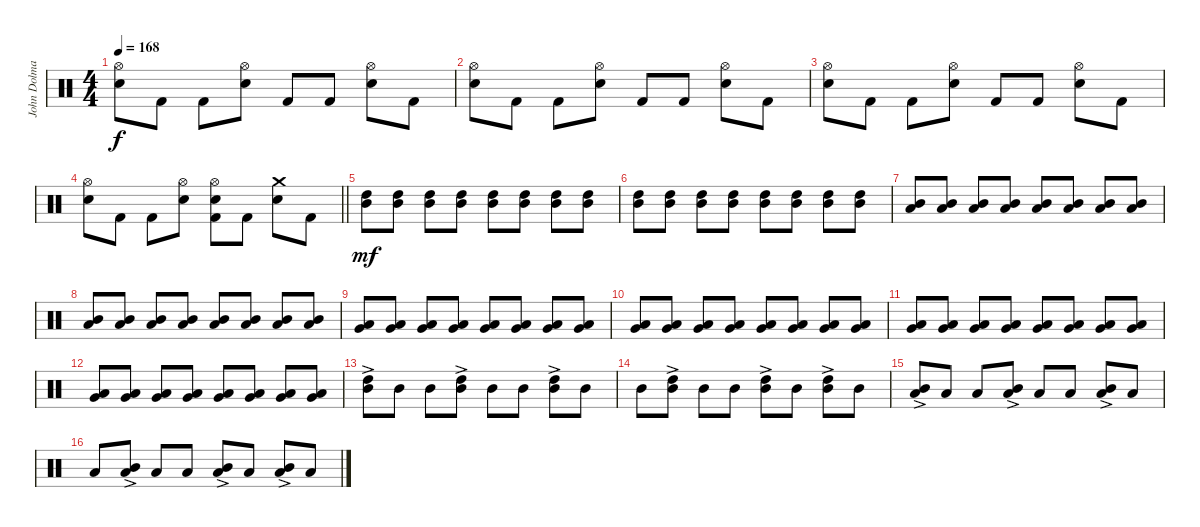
\track ("John Dolmayan" "John Dolma") {instrument percussion}
\staff {score}
\articulation defaults
\ts (4 4)
\tempo 168
\clef neutral
\ks c
("Hi-Hat (open)" "Electric Snare (hit)").8{dy f} "Kick (hit) 2".8 "Kick (hit) 2".8 ("Hi-Hat (open)" "Electric Snare (hit)").8 "Kick (hit) 2".8 "Kick (hit) 2".8 ("Hi-Hat (open)" "Electric Snare (hit)").8 "Kick (hit) 2".8 |
("Hi-Hat (open)" "Electric Snare (hit)").8 "Kick (hit) 2".8 "Kick (hit) 2".8 ("Hi-Hat (open)" "Electric Snare (hit)").8 "Kick (hit) 2".8 "Kick (hit) 2".8 ("Hi-Hat (open)" "Electric Snare (hit)").8 "Kick (hit) 2".8 |
("Hi-Hat (open)" "Electric Snare (hit)").8 "Kick (hit) 2".8 "Kick (hit) 2".8 ("Hi-Hat (open)" "Electric Snare (hit)").8 "Kick (hit) 2".8 "Kick (hit) 2".8 ("Hi-Hat (open)" "Electric Snare (hit)").8 "Kick (hit) 2".8 |
\barLineRight lightlight
("Hi-Hat (open)" "Electric Snare (hit)").8 "Kick (hit) 2".8 "Kick (hit) 2".8 ("Hi-Hat (open)" "Electric Snare (hit)").8 ("Hi-Hat (open)" "Electric Snare (hit)" "Kick (hit) 2").8 "Kick (hit) 2".8 ("Crash medium (hit)" "Electric Snare (hit)").8 "Kick (hit) 2".8 |
("High Tom (hit)" "Mid Tom (hit)").8{dy mf} ("High Tom (hit)" "Mid Tom (hit)").8 ("High Tom (hit)" "Mid Tom (hit)").8 ("High Tom (hit)" "Mid Tom (hit)").8 ("High Tom (hit)" "Mid Tom (hit)").8 ("High Tom (hit)" "Mid Tom (hit)").8 ("High Tom (hit)" "Mid Tom (hit)").8 ("High Tom (hit)" "Mid Tom (hit)").8 |
("High Tom (hit)" "Mid Tom (hit)").8 ("High Tom (hit)" "Mid Tom (hit)").8 ("High Tom (hit)" "Mid Tom (hit)").8 ("High Tom (hit)" "Mid Tom (hit)").8 ("High Tom (hit)" "Mid Tom (hit)").8 ("High Tom (hit)" "Mid Tom (hit)").8 ("High Tom (hit)" "Mid Tom (hit)").8 ("High Tom (hit)" "Mid Tom (hit)").8 |
("Mid Tom (hit)" "Low Tom (hit)").8 ("Mid Tom (hit)" "Low Tom (hit)").8 ("Mid Tom (hit)" "Low Tom (hit)").8 ("Mid Tom (hit)" "Low Tom (hit)").8 ("Mid Tom (hit)" "Low Tom (hit)").8 ("Mid Tom (hit)" "Low Tom (hit)").8 ("Mid Tom (hit)" "Low Tom (hit)").8 ("Mid Tom (hit)" "Low Tom (hit)").8 |
("Mid Tom (hit)" "Low Tom (hit)").8 ("Mid Tom (hit)" "Low Tom (hit)").8 ("Mid Tom (hit)" "Low Tom (hit)").8 ("Mid Tom (hit)" "Low Tom (hit)").8 ("Mid Tom (hit)" "Low Tom (hit)").8 ("Mid Tom (hit)" "Low Tom (hit)").8 ("Mid Tom (hit)" "Low Tom (hit)").8 ("Mid Tom (hit)" "Low Tom (hit)").8 |
("Low Tom (hit)" "Very Low Tom (hit)").8 ("Low Tom (hit)" "Very Low Tom (hit)").8 ("Low Tom (hit)" "Very Low Tom (hit)").8 ("Low Tom (hit)" "Very Low Tom (hit)").8 ("Low Tom (hit)" "Very Low Tom (hit)").8 ("Low Tom (hit)" "Very Low Tom (hit)").8 ("Low Tom (hit)" "Very Low Tom (hit)").8 ("Low Tom (hit)" "Very Low Tom (hit)").8 |
("Low Tom (hit)" "Very Low Tom (hit)").8 ("Low Tom (hit)" "Very Low Tom (hit)").8 ("Low Tom (hit)" "Very Low Tom (hit)").8 ("Low Tom (hit)" "Very Low Tom (hit)").8 ("Low Tom (hit)" "Very Low Tom (hit)").8 ("Low Tom (hit)" "Very Low Tom (hit)").8 ("Low Tom (hit)" "Very Low Tom (hit)").8 ("Low Tom (hit)" "Very Low Tom (hit)").8 |
("Very Low Tom (hit)" "Low Floor Tom (hit)").8 ("Very Low Tom (hit)" "Low Floor Tom (hit)").8 ("Very Low Tom (hit)" "Low Floor Tom (hit)").8 ("Very Low Tom (hit)" "Low Floor Tom (hit)").8 ("Very Low Tom (hit)" "Low Floor Tom (hit)").8 ("Very Low Tom (hit)" "Low Floor Tom (hit)").8 ("Very Low Tom (hit)" "Low Floor Tom (hit)").8 ("Very Low Tom (hit)" "Low Floor Tom (hit)").8 |
("Very Low Tom (hit)" "Low Floor Tom (hit)").8 ("Very Low Tom (hit)" "Low Floor Tom (hit)").8 ("Very Low Tom (hit)" "Low Floor Tom (hit)").8 ("Very Low Tom (hit)" "Low Floor Tom (hit)").8 ("Very Low Tom (hit)" "Low Floor Tom (hit)").8 ("Very Low Tom (hit)" "Low Floor Tom (hit)").8 ("Very Low Tom (hit)" "Low Floor Tom (hit)").8 ("Very Low Tom (hit)" "Low Floor Tom (hit)").8 |
("High Tom (hit)"{ac} "Mid Tom (hit)").8 "Mid Tom (hit)".8 "Mid Tom (hit)".8 ("High Tom (hit)"{ac} "Mid Tom (hit)").8 "Mid Tom (hit)".8 "Mid Tom (hit)".8 ("High Tom (hit)"{ac} "Mid Tom (hit)").8 "Mid Tom (hit)".8 |
"Mid Tom (hit)".8 ("High Tom (hit)"{ac} "Mid Tom (hit)").8 "Mid Tom (hit)".8 "Mid Tom (hit)".8 ("High Tom (hit)"{ac} "Mid Tom (hit)").8 "Mid Tom (hit)".8 ("High Tom (hit)"{ac} "Mid Tom (hit)").8 "Mid Tom (hit)".8 |
("Mid Tom (hit)"{ac} "Low Tom (hit)").8 "Low Tom (hit)".8 "Low Tom (hit)".8 ("Mid Tom (hit)"{ac} "Low Tom (hit)").8 "Low Tom (hit)".8 "Low Tom (hit)".8 ("Mid Tom (hit)"{ac} "Low Tom (hit)").8 "Low Tom (hit)".8 |
"Low Tom (hit)".8 ("Mid Tom (hit)"{ac} "Low Tom (hit)").8 "Low Tom (hit)".8 "Low Tom (hit)".8 ("Mid Tom (hit)"{ac} "Low Tom (hit)").8 "Low Tom (hit)".8 ("Mid Tom (hit)"{ac} "Low Tom (hit)").8 "Low Tom (hit)".8
